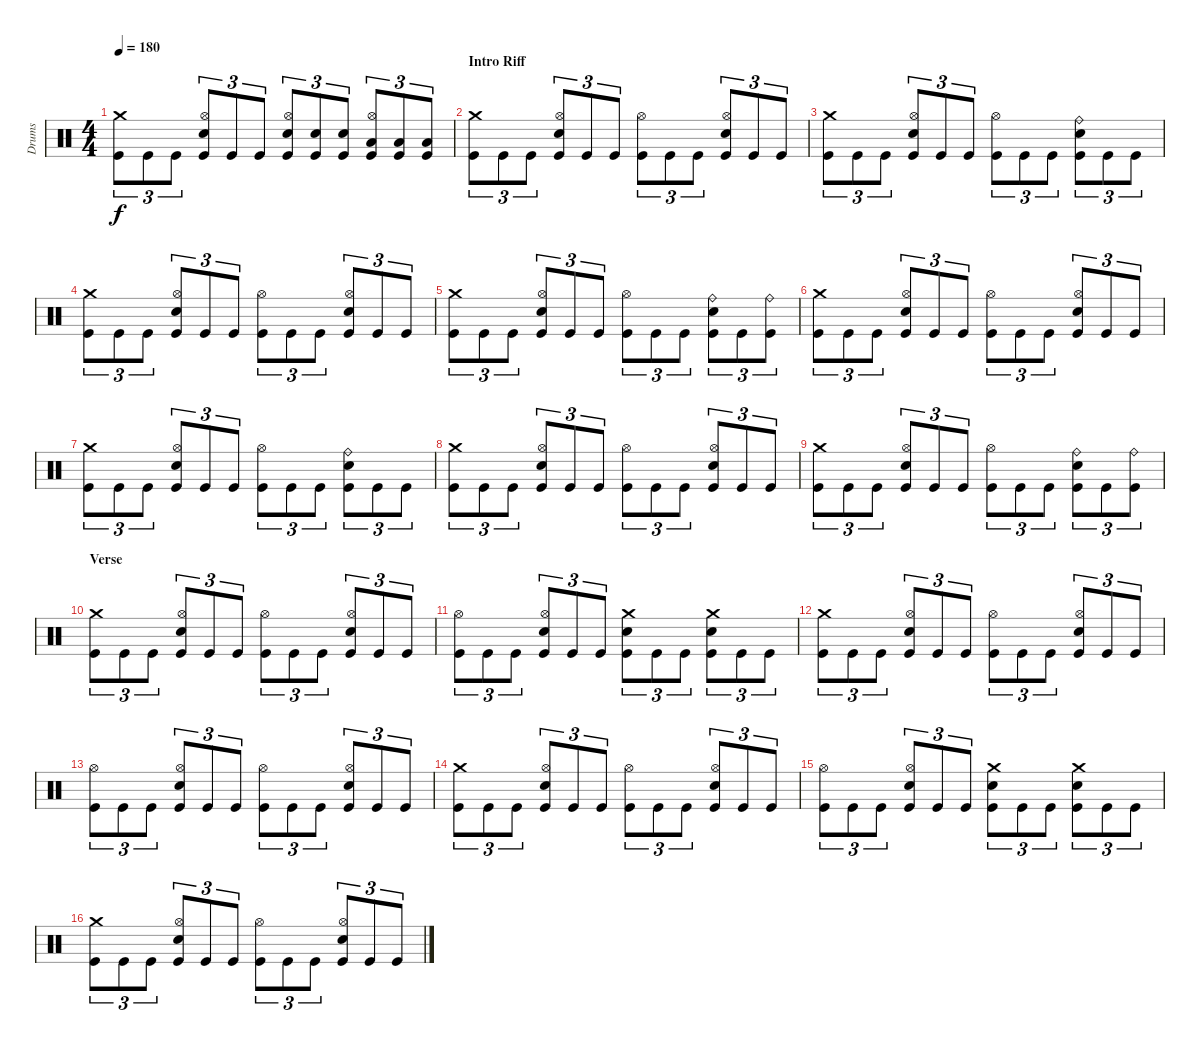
\track ("Drums" "Drums") {instrument percussion}
\staff {score}
\articulation defaults
\ts (4 4)
\tempo 180
\clef neutral
\ks c
("Crash medium (hit)" "Kick (hit)").8{tu (3 2) dy f} "Kick (hit)".8{tu (3 2)} "Kick (hit)".8{tu (3 2)} ("Hi-Hat (open)" "Electric Snare (hit)" "Kick (hit)").8{tu (3 2)} "Kick (hit)".8{tu (3 2)} "Kick (hit)".8{tu (3 2)} ("Hi-Hat (open)" "Electric Snare (hit)" "Kick (hit)").8{tu (3 2)} ("Electric Snare (hit)" "Kick (hit)").8{tu (3 2)} ("Electric Snare (hit)" "Kick (hit)").8{tu (3 2)} ("Hi-Hat (open)" "Low Tom (hit)" "Kick (hit)").8{tu (3 2)} ("Low Tom (hit)" "Kick (hit)").8{tu (3 2)} ("Low Tom (hit)" "Kick (hit)").8{tu (3 2)} |
\section ("" "Intro Riff")
("Crash medium (hit)" "Kick (hit)").8{tu (3 2)} "Kick (hit)".8{tu (3 2)} "Kick (hit)".8{tu (3 2)} ("Hi-Hat (open)" "Electric Snare (hit)" "Kick (hit)").8{tu (3 2)} "Kick (hit)".8{tu (3 2)} "Kick (hit)".8{tu (3 2)} ("Hi-Hat (open)" "Kick (hit)").8{tu (3 2)} "Kick (hit)".8{tu (3 2)} "Kick (hit)".8{tu (3 2)} ("Hi-Hat (open)" "Electric Snare (hit)" "Kick (hit)").8{tu (3 2)} "Kick (hit)".8{tu (3 2)} "Kick (hit)".8{tu (3 2)} |
("Crash medium (hit)" "Kick (hit)").8{tu (3 2)} "Kick (hit)".8{tu (3 2)} "Kick (hit)".8{tu (3 2)} ("Hi-Hat (open)" "Electric Snare (hit)" "Kick (hit)").8{tu (3 2)} "Kick (hit)".8{tu (3 2)} "Kick (hit)".8{tu (3 2)} ("Hi-Hat (open)" "Kick (hit)").8{tu (3 2)} "Kick (hit)".8{tu (3 2)} "Kick (hit)".8{tu (3 2)} ("Ride (bell)" "Electric Snare (hit)" "Kick (hit)").8{tu (3 2)} "Kick (hit)".8{tu (3 2)} "Kick (hit)".8{tu (3 2)} |
("Crash medium (hit)" "Kick (hit)").8{tu (3 2)} "Kick (hit)".8{tu (3 2)} "Kick (hit)".8{tu (3 2)} ("Hi-Hat (open)" "Electric Snare (hit)" "Kick (hit)").8{tu (3 2)} "Kick (hit)".8{tu (3 2)} "Kick (hit)".8{tu (3 2)} ("Hi-Hat (open)" "Kick (hit)").8{tu (3 2)} "Kick (hit)".8{tu (3 2)} "Kick (hit)".8{tu (3 2)} ("Hi-Hat (open)" "Electric Snare (hit)" "Kick (hit)").8{tu (3 2)} "Kick (hit)".8{tu (3 2)} "Kick (hit)".8{tu (3 2)} |
("Crash medium (hit)" "Kick (hit)").8{tu (3 2)} "Kick (hit)".8{tu (3 2)} "Kick (hit)".8{tu (3 2)} ("Hi-Hat (open)" "Electric Snare (hit)" "Kick (hit)").8{tu (3 2)} "Kick (hit)".8{tu (3 2)} "Kick (hit)".8{tu (3 2)} ("Hi-Hat (open)" "Kick (hit)").8{tu (3 2)} "Kick (hit)".8{tu (3 2)} "Kick (hit)".8{tu (3 2)} ("Ride (bell)" "Electric Snare (hit)" "Kick (hit)").8{tu (3 2)} "Kick (hit)".8{tu (3 2)} ("Ride (bell)" "Kick (hit)").8{tu (3 2)} |
("Crash medium (hit)" "Kick (hit)").8{tu (3 2)} "Kick (hit)".8{tu (3 2)} "Kick (hit)".8{tu (3 2)} ("Hi-Hat (open)" "Electric Snare (hit)" "Kick (hit)").8{tu (3 2)} "Kick (hit)".8{tu (3 2)} "Kick (hit)".8{tu (3 2)} ("Hi-Hat (open)" "Kick (hit)").8{tu (3 2)} "Kick (hit)".8{tu (3 2)} "Kick (hit)".8{tu (3 2)} ("Hi-Hat (open)" "Electric Snare (hit)" "Kick (hit)").8{tu (3 2)} "Kick (hit)".8{tu (3 2)} "Kick (hit)".8{tu (3 2)} |
("Crash medium (hit)" "Kick (hit)").8{tu (3 2)} "Kick (hit)".8{tu (3 2)} "Kick (hit)".8{tu (3 2)} ("Hi-Hat (open)" "Electric Snare (hit)" "Kick (hit)").8{tu (3 2)} "Kick (hit)".8{tu (3 2)} "Kick (hit)".8{tu (3 2)} ("Hi-Hat (open)" "Kick (hit)").8{tu (3 2)} "Kick (hit)".8{tu (3 2)} "Kick (hit)".8{tu (3 2)} ("Ride (bell)" "Electric Snare (hit)" "Kick (hit)").8{tu (3 2)} "Kick (hit)".8{tu (3 2)} "Kick (hit)".8{tu (3 2)} |
("Crash medium (hit)" "Kick (hit)").8{tu (3 2)} "Kick (hit)".8{tu (3 2)} "Kick (hit)".8{tu (3 2)} ("Hi-Hat (open)" "Electric Snare (hit)" "Kick (hit)").8{tu (3 2)} "Kick (hit)".8{tu (3 2)} "Kick (hit)".8{tu (3 2)} ("Hi-Hat (open)" "Kick (hit)").8{tu (3 2)} "Kick (hit)".8{tu (3 2)} "Kick (hit)".8{tu (3 2)} ("Hi-Hat (open)" "Electric Snare (hit)" "Kick (hit)").8{tu (3 2)} "Kick (hit)".8{tu (3 2)} "Kick (hit)".8{tu (3 2)} |
("Crash medium (hit)" "Kick (hit)").8{tu (3 2)} "Kick (hit)".8{tu (3 2)} "Kick (hit)".8{tu (3 2)} ("Hi-Hat (open)" "Electric Snare (hit)" "Kick (hit)").8{tu (3 2)} "Kick (hit)".8{tu (3 2)} "Kick (hit)".8{tu (3 2)} ("Hi-Hat (open)" "Kick (hit)").8{tu (3 2)} "Kick (hit)".8{tu (3 2)} "Kick (hit)".8{tu (3 2)} ("Ride (bell)" "Electric Snare (hit)" "Kick (hit)").8{tu (3 2)} "Kick (hit)".8{tu (3 2)} ("Ride (bell)" "Kick (hit)").8{tu (3 2)} |
\section ("" "Verse")
("Crash medium (hit)" "Kick (hit)").8{tu (3 2)} "Kick (hit)".8{tu (3 2)} "Kick (hit)".8{tu (3 2)} ("Hi-Hat (open)" "Electric Snare (hit)" "Kick (hit)").8{tu (3 2)} "Kick (hit)".8{tu (3 2)} "Kick (hit)".8{tu (3 2)} ("Hi-Hat (open)" "Kick (hit)").8{tu (3 2)} "Kick (hit)".8{tu (3 2)} "Kick (hit)".8{tu (3 2)} ("Hi-Hat (open)" "Electric Snare (hit)" "Kick (hit)").8{tu (3 2)} "Kick (hit)".8{tu (3 2)} "Kick (hit)".8{tu (3 2)} |
("Hi-Hat (open)" "Kick (hit)").8{tu (3 2)} "Kick (hit)".8{tu (3 2)} "Kick (hit)".8{tu (3 2)} ("Hi-Hat (open)" "Electric Snare (hit)" "Kick (hit)").8{tu (3 2)} "Kick (hit)".8{tu (3 2)} "Kick (hit)".8{tu (3 2)} ("Crash medium (hit)" "Electric Snare (hit)" "Kick (hit)").8{tu (3 2)} "Kick (hit)".8{tu (3 2)} "Kick (hit)".8{tu (3 2)} ("Crash medium (hit)" "Electric Snare (hit)" "Kick (hit)").8{tu (3 2)} "Kick (hit)".8{tu (3 2)} "Kick (hit)".8{tu (3 2)} |
("Crash medium (hit)" "Kick (hit)").8{tu (3 2)} "Kick (hit)".8{tu (3 2)} "Kick (hit)".8{tu (3 2)} ("Hi-Hat (open)" "Electric Snare (hit)" "Kick (hit)").8{tu (3 2)} "Kick (hit)".8{tu (3 2)} "Kick (hit)".8{tu (3 2)} ("Hi-Hat (open)" "Kick (hit)").8{tu (3 2)} "Kick (hit)".8{tu (3 2)} "Kick (hit)".8{tu (3 2)} ("Hi-Hat (open)" "Electric Snare (hit)" "Kick (hit)").8{tu (3 2)} "Kick (hit)".8{tu (3 2)} "Kick (hit)".8{tu (3 2)} |
("Hi-Hat (open)" "Kick (hit)").8{tu (3 2)} "Kick (hit)".8{tu (3 2)} "Kick (hit)".8{tu (3 2)} ("Hi-Hat (open)" "Electric Snare (hit)" "Kick (hit)").8{tu (3 2)} "Kick (hit)".8{tu (3 2)} "Kick (hit)".8{tu (3 2)} ("Hi-Hat (open)" "Kick (hit)").8{tu (3 2)} "Kick (hit)".8{tu (3 2)} "Kick (hit)".8{tu (3 2)} ("Hi-Hat (open)" "Electric Snare (hit)" "Kick (hit)").8{tu (3 2)} "Kick (hit)".8{tu (3 2)} "Kick (hit)".8{tu (3 2)} |
("Crash medium (hit)" "Kick (hit)").8{tu (3 2)} "Kick (hit)".8{tu (3 2)} "Kick (hit)".8{tu (3 2)} ("Hi-Hat (open)" "Electric Snare (hit)" "Kick (hit)").8{tu (3 2)} "Kick (hit)".8{tu (3 2)} "Kick (hit)".8{tu (3 2)} ("Hi-Hat (open)" "Kick (hit)").8{tu (3 2)} "Kick (hit)".8{tu (3 2)} "Kick (hit)".8{tu (3 2)} ("Hi-Hat (open)" "Electric Snare (hit)" "Kick (hit)").8{tu (3 2)} "Kick (hit)".8{tu (3 2)} "Kick (hit)".8{tu (3 2)} |
("Hi-Hat (open)" "Kick (hit)").8{tu (3 2)} "Kick (hit)".8{tu (3 2)} "Kick (hit)".8{tu (3 2)} ("Hi-Hat (open)" "Electric Snare (hit)" "Kick (hit)").8{tu (3 2)} "Kick (hit)".8{tu (3 2)} "Kick (hit)".8{tu (3 2)} ("Crash medium (hit)" "Electric Snare (hit)" "Kick (hit)").8{tu (3 2)} "Kick (hit)".8{tu (3 2)} "Kick (hit)".8{tu (3 2)} ("Crash medium (hit)" "Electric Snare (hit)" "Kick (hit)").8{tu (3 2)} "Kick (hit)".8{tu (3 2)} "Kick (hit)".8{tu (3 2)} |
("Crash medium (hit)" "Kick (hit)").8{tu (3 2)} "Kick (hit)".8{tu (3 2)} "Kick (hit)".8{tu (3 2)} ("Hi-Hat (open)" "Electric Snare (hit)" "Kick (hit)").8{tu (3 2)} "Kick (hit)".8{tu (3 2)} "Kick (hit)".8{tu (3 2)} ("Hi-Hat (open)" "Kick (hit)").8{tu (3 2)} "Kick (hit)".8{tu (3 2)} "Kick (hit)".8{tu (3 2)} ("Hi-Hat (open)" "Electric Snare (hit)" "Kick (hit)").8{tu (3 2)} "Kick (hit)".8{tu (3 2)} "Kick (hit)".8{tu (3 2)}
